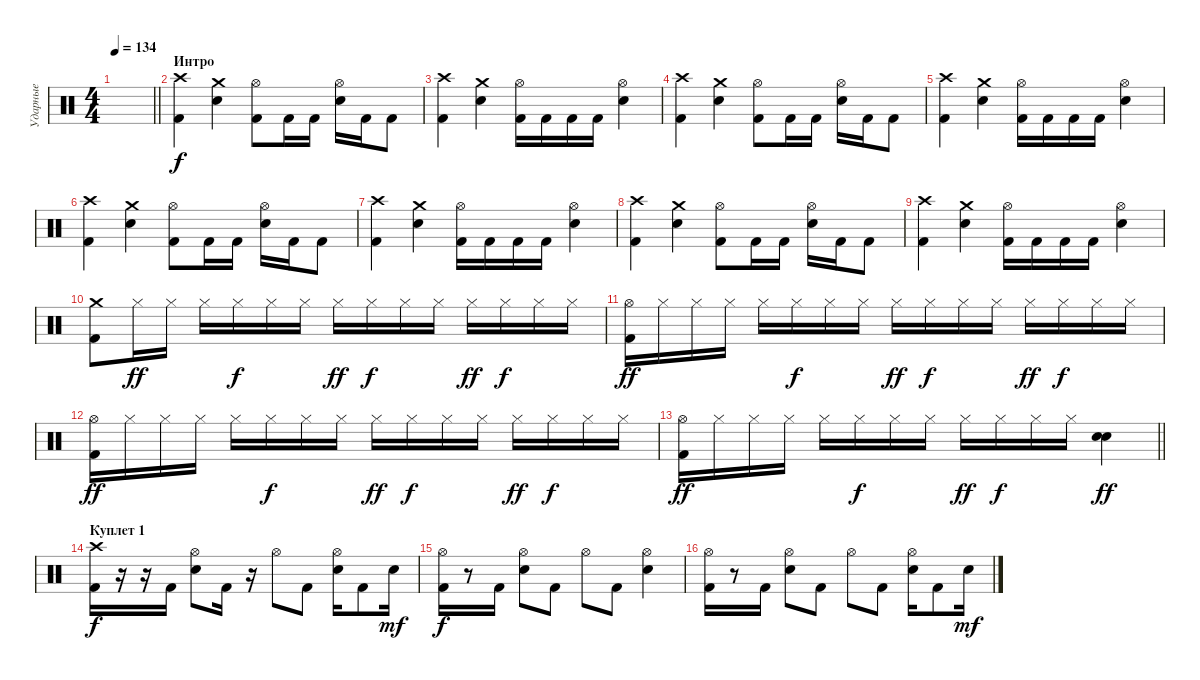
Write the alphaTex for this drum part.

\track ("Ударные" "Ударные") {instrument percussion}
\staff {score}
\articulation defaults
\ts (4 4)
\tempo 134
\clef neutral
\barLineRight lightlight
\ks c
|
\section ("" "Интро")
("Crash high (hit)" "Kick (hit) 2").4 ("Crash medium (hit)" "Snare (hit) 2").4 ("Hi-Hat (open)" "Kick (hit) 2").8 "Kick (hit) 2".16 "Kick (hit) 2".16 ("Hi-Hat (open)" "Snare (hit) 2").16 "Kick (hit) 2".16 "Kick (hit) 2".8 |
("Crash high (hit)" "Kick (hit) 2").4 ("Crash medium (hit)" "Snare (hit) 2").4 ("Hi-Hat (open)" "Kick (hit) 2").16 "Kick (hit) 2".16 "Kick (hit) 2".16 "Kick (hit) 2".16 ("Hi-Hat (open)" "Snare (hit) 2").4 |
("Crash high (hit)" "Kick (hit) 2").4 ("Crash medium (hit)" "Snare (hit) 2").4 ("Hi-Hat (open)" "Kick (hit) 2").8 "Kick (hit) 2".16 "Kick (hit) 2".16 ("Hi-Hat (open)" "Snare (hit) 2").16 "Kick (hit) 2".16 "Kick (hit) 2".8 |
("Crash high (hit)" "Kick (hit) 2").4 ("Crash medium (hit)" "Snare (hit) 2").4 ("Hi-Hat (open)" "Kick (hit) 2").16 "Kick (hit) 2".16 "Kick (hit) 2".16 "Kick (hit) 2".16 ("Hi-Hat (open)" "Snare (hit) 2").4 |
("Crash high (hit)" "Kick (hit) 2").4 ("Crash medium (hit)" "Snare (hit) 2").4 ("Hi-Hat (open)" "Kick (hit) 2").8 "Kick (hit) 2".16 "Kick (hit) 2".16 ("Hi-Hat (open)" "Snare (hit) 2").16 "Kick (hit) 2".16 "Kick (hit) 2".8 |
("Crash high (hit)" "Kick (hit) 2").4 ("Crash medium (hit)" "Snare (hit) 2").4 ("Hi-Hat (open)" "Kick (hit) 2").16 "Kick (hit) 2".16 "Kick (hit) 2".16 "Kick (hit) 2".16 ("Hi-Hat (open)" "Snare (hit) 2").4 |
("Crash high (hit)" "Kick (hit) 2").4 ("Crash medium (hit)" "Snare (hit) 2").4 ("Hi-Hat (open)" "Kick (hit) 2").8 "Kick (hit) 2".16 "Kick (hit) 2".16 ("Hi-Hat (open)" "Snare (hit) 2").16 "Kick (hit) 2".16 "Kick (hit) 2".8 |
("Crash high (hit)" "Kick (hit) 2").4 ("Crash medium (hit)" "Snare (hit) 2").4 ("Hi-Hat (open)" "Kick (hit) 2").16 "Kick (hit) 2".16 "Kick (hit) 2".16 "Kick (hit) 2".16 ("Hi-Hat (open)" "Snare (hit) 2").4 |
("Crash medium (hit)" "Kick (hit) 2").8 "Hi-Hat (closed)".16{dy ff} "Hi-Hat (closed)".16 "Hi-Hat (closed)".16 "Hi-Hat (closed)".16{dy f} "Hi-Hat (closed)".16 "Hi-Hat (closed)".16 "Hi-Hat (closed)".16{dy ff} "Hi-Hat (closed)".16{dy f} "Hi-Hat (closed)".16 "Hi-Hat (closed)".16 "Hi-Hat (closed)".16{dy ff} "Hi-Hat (closed)".16{dy f} "Hi-Hat (closed)".16 "Hi-Hat (closed)".16 |
("Hi-Hat (open)" "Kick (hit) 2").16{dy ff} "Hi-Hat (closed)".16 "Hi-Hat (closed)".16 "Hi-Hat (closed)".16 "Hi-Hat (closed)".16 "Hi-Hat (closed)".16{dy f} "Hi-Hat (closed)".16 "Hi-Hat (closed)".16 "Hi-Hat (closed)".16{dy ff} "Hi-Hat (closed)".16{dy f} "Hi-Hat (closed)".16 "Hi-Hat (closed)".16 "Hi-Hat (closed)".16{dy ff} "Hi-Hat (closed)".16{dy f} "Hi-Hat (closed)".16 "Hi-Hat (closed)".16 |
("Hi-Hat (open)" "Kick (hit) 2").16{dy ff} "Hi-Hat (closed)".16 "Hi-Hat (closed)".16 "Hi-Hat (closed)".16 "Hi-Hat (closed)".16 "Hi-Hat (closed)".16{dy f} "Hi-Hat (closed)".16 "Hi-Hat (closed)".16 "Hi-Hat (closed)".16{dy ff} "Hi-Hat (closed)".16{dy f} "Hi-Hat (closed)".16 "Hi-Hat (closed)".16 "Hi-Hat (closed)".16{dy ff} "Hi-Hat (closed)".16{dy f} "Hi-Hat (closed)".16 "Hi-Hat (closed)".16 |
\barLineRight lightlight
("Hi-Hat (open)" "Kick (hit) 2").16{dy ff} "Hi-Hat (closed)".16 "Hi-Hat (closed)".16 "Hi-Hat (closed)".16 "Hi-Hat (closed)".16 "Hi-Hat (closed)".16{dy f} "Hi-Hat (closed)".16 "Hi-Hat (closed)".16 "Hi-Hat (closed)".16{dy ff} "Hi-Hat (closed)".16{dy f} "Hi-Hat (closed)".16 "Hi-Hat (closed)".16 ("Snare (hit) 2" "Snare (hit) 2").4{dy ff} |
\section ("" "Куплет 1")
("Crash high (hit)" "Kick (hit) 2").16{dy f} r.16 r.16 "Kick (hit) 2".16 ("Hi-Hat (open)" "Snare (hit) 2").8 "Kick (hit) 2".16 r.16 "Hi-Hat (open)".8 "Kick (hit) 2".8 ("Hi-Hat (open)" "Snare (hit) 2").16 "Kick (hit) 2".8 "Snare (hit) 2".16{dy mf} |
("Hi-Hat (open)" "Kick (hit) 2").16{dy f} r.8 "Kick (hit) 2".16 ("Hi-Hat (open)" "Snare (hit) 2").8 "Kick (hit) 2".8 "Hi-Hat (open)".8 "Kick (hit) 2".8 ("Hi-Hat (open)" "Snare (hit) 2").4 |
("Hi-Hat (open)" "Kick (hit) 2").16 r.8 "Kick (hit) 2".16 ("Hi-Hat (open)" "Snare (hit) 2").8 "Kick (hit) 2".8 "Hi-Hat (open)".8 "Kick (hit) 2".8 ("Hi-Hat (open)" "Snare (hit) 2").16 "Kick (hit) 2".8 "Snare (hit) 2".16{dy mf}
